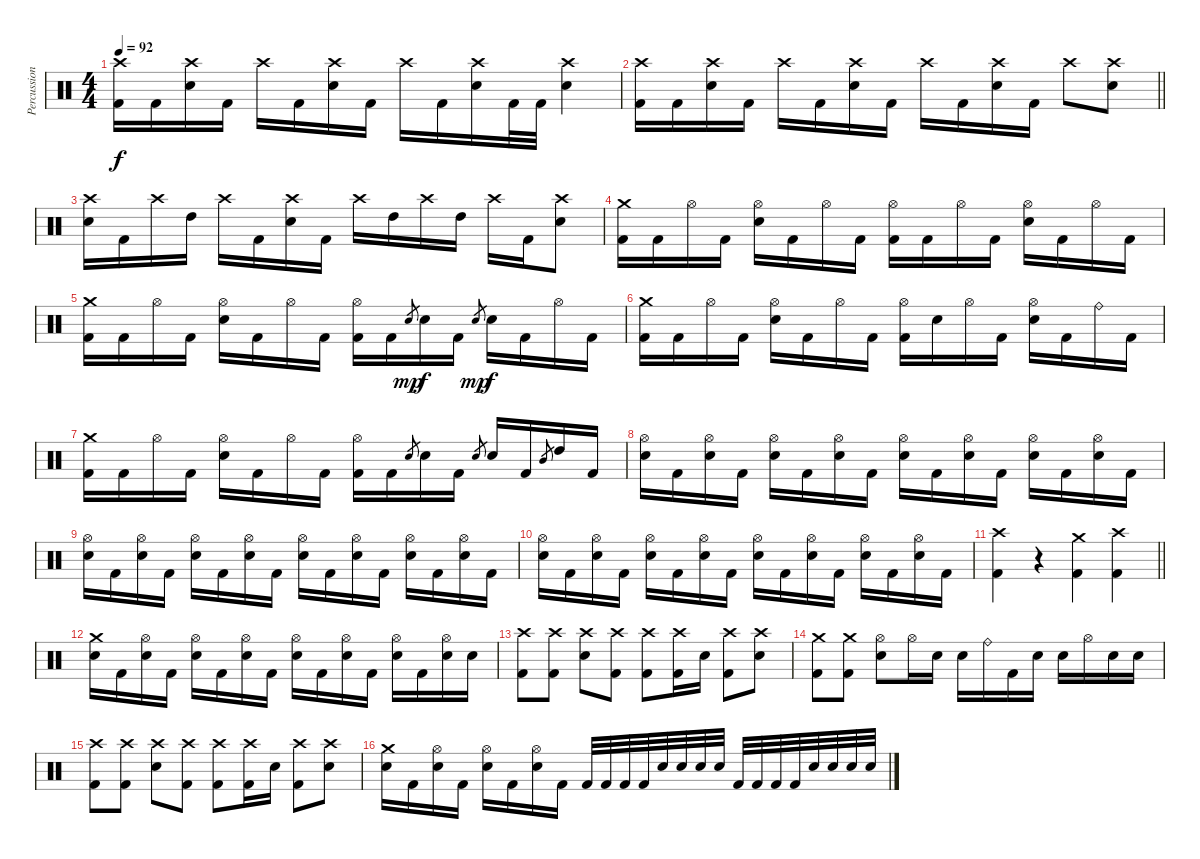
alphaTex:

\track ("Percussion (Moose)" "Percussion") {instrument percussion}
\staff {score}
\articulation defaults
\ts (4 4)
\tempo 92
\clef neutral
\ks c
("Crash high (hit)" "Kick (hit) 2").16{dy f} "Kick (hit) 2".16 ("Crash high (hit)" "Electric Snare (hit)").16 "Kick (hit) 2".16 "Crash high (hit)".16 "Kick (hit) 2".16 ("Crash high (hit)" "Electric Snare (hit)").16 "Kick (hit) 2".16 "Crash high (hit)".16 "Kick (hit) 2".16 ("Crash high (hit)" "Electric Snare (hit)").16 "Kick (hit) 2".32 "Kick (hit) 2".32 ("Crash high (hit)" "Electric Snare (hit)").4 |
\barLineRight lightlight
("Crash high (hit)" "Kick (hit) 2").16 "Kick (hit) 2".16 ("Crash high (hit)" "Electric Snare (hit)").16 "Kick (hit) 2".16 "Crash high (hit)".16 "Kick (hit) 2".16 ("Crash high (hit)" "Electric Snare (hit)").16 "Kick (hit) 2".16 "Crash high (hit)".16 "Kick (hit) 2".16 ("Crash high (hit)" "Electric Snare (hit)").16 "Kick (hit) 2".16 "Crash high (hit)".8 ("Crash high (hit)" "Electric Snare (hit)").8 |
("Crash high (hit)" "Electric Snare (hit)").16 "Kick (hit) 2".16 "Crash high (hit)".16 "High Tom (hit)".16 "Crash high (hit)".16 "Kick (hit) 2".16 ("Crash high (hit)" "Electric Snare (hit)").16 "Kick (hit) 2".16 "Crash high (hit)".16 "High Tom (hit)".16 "Crash high (hit)".16 "High Tom (hit)".16 "Crash high (hit)".16 "Kick (hit) 2".16 ("Crash high (hit)" "Electric Snare (hit)").8 |
("Crash medium (hit)" "Kick (hit) 2").16 "Kick (hit) 2".16 "Hi-Hat (open)".16 "Kick (hit) 2".16 ("Hi-Hat (open)" "Electric Snare (hit)").16 "Kick (hit) 2".16 "Hi-Hat (open)".16 "Kick (hit) 2".16 ("Hi-Hat (open)" "Kick (hit) 2").16 "Kick (hit) 2".16 "Hi-Hat (open)".16 "Kick (hit) 2".16 ("Hi-Hat (open)" "Electric Snare (hit)").16 "Kick (hit) 2".16 "Hi-Hat (open)".16 "Kick (hit) 2".16 |
("Crash medium (hit)" "Kick (hit) 2").16 "Kick (hit) 2".16 "Hi-Hat (open)".16 "Kick (hit) 2".16 ("Hi-Hat (open)" "Electric Snare (hit)").16 "Kick (hit) 2".16 "Hi-Hat (open)".16 "Kick (hit) 2".16 ("Hi-Hat (open)" "Kick (hit) 2").16 "Kick (hit) 2".16 "Electric Snare (hit)".8{gr dy mp} "Electric Snare (hit)".16{dy f} "Kick (hit) 2".16 "Electric Snare (hit)".8{gr dy mp} "Electric Snare (hit)".16{dy f} "Kick (hit) 2".16 "Hi-Hat (open)".16 "Kick (hit) 2".16 |
("Crash medium (hit)" "Kick (hit) 2").16 "Kick (hit) 2".16 "Hi-Hat (open)".16 "Kick (hit) 2".16 ("Hi-Hat (open)" "Electric Snare (hit)").16 "Kick (hit) 2".16 "Hi-Hat (open)".16 "Kick (hit) 2".16 ("Hi-Hat (open)" "Kick (hit) 2").16 "Electric Snare (hit)".16 "Hi-Hat (open)".16 "Kick (hit) 2".16 ("Hi-Hat (open)" "Electric Snare (hit)").16 "Kick (hit) 2".16 "Ride (bell)".16 "Kick (hit) 2".16 |
("Crash medium (hit)" "Kick (hit) 2").16 "Kick (hit) 2".16 "Hi-Hat (open)".16 "Kick (hit) 2".16 ("Hi-Hat (open)" "Electric Snare (hit)").16 "Kick (hit) 2".16 "Hi-Hat (open)".16 "Kick (hit) 2".16 ("Hi-Hat (open)" "Kick (hit) 2").16 "Kick (hit) 2".16 "Electric Snare (hit)".8{gr} "Electric Snare (hit)".16 "Kick (hit) 2".16 "Electric Snare (hit)".8{gr} "Electric Snare (hit)".16 "Kick (hit) 2".16 "Mid Tom (hit)".8{gr} "High Tom (hit)".16 "Kick (hit) 2".16 |
("Hi-Hat (open)" "Electric Snare (hit)").16{volume 6} "Kick (hit) 2".16 ("Hi-Hat (open)" "Electric Snare (hit)").16 "Kick (hit) 2".16 ("Hi-Hat (open)" "Electric Snare (hit)").16 "Kick (hit) 2".16 ("Hi-Hat (open)" "Electric Snare (hit)").16 "Kick (hit) 2".16 ("Hi-Hat (open)" "Electric Snare (hit)").16 "Kick (hit) 2".16 ("Hi-Hat (open)" "Electric Snare (hit)").16 "Kick (hit) 2".16 ("Hi-Hat (open)" "Electric Snare (hit)").16 "Kick (hit) 2".16 ("Hi-Hat (open)" "Electric Snare (hit)").16 "Kick (hit) 2".16 |
("Hi-Hat (open)" "Electric Snare (hit)").16 "Kick (hit) 2".16 ("Hi-Hat (open)" "Electric Snare (hit)").16 "Kick (hit) 2".16 ("Hi-Hat (open)" "Electric Snare (hit)").16 "Kick (hit) 2".16 ("Hi-Hat (open)" "Electric Snare (hit)").16 "Kick (hit) 2".16 ("Hi-Hat (open)" "Electric Snare (hit)").16 "Kick (hit) 2".16 ("Hi-Hat (open)" "Electric Snare (hit)").16 "Kick (hit) 2".16 ("Hi-Hat (open)" "Electric Snare (hit)").16 "Kick (hit) 2".16 ("Hi-Hat (open)" "Electric Snare (hit)").16 "Kick (hit) 2".16 |
("Hi-Hat (open)" "Electric Snare (hit)").16 "Kick (hit) 2".16 ("Hi-Hat (open)" "Electric Snare (hit)").16 "Kick (hit) 2".16 ("Hi-Hat (open)" "Electric Snare (hit)").16 "Kick (hit) 2".16 ("Hi-Hat (open)" "Electric Snare (hit)").16 "Kick (hit) 2".16 ("Hi-Hat (open)" "Electric Snare (hit)").16 "Kick (hit) 2".16 ("Hi-Hat (open)" "Electric Snare (hit)").16 "Kick (hit) 2".16 ("Hi-Hat (open)" "Electric Snare (hit)").16 "Kick (hit) 2".16 ("Hi-Hat (open)" "Electric Snare (hit)").16 "Kick (hit) 2".16 |
\barLineRight lightlight
("Crash high (hit)" "Kick (hit) 2").4{volume 13} r.4 ("Crash medium (hit)" "Kick (hit) 2").4 ("Crash high (hit)" "Kick (hit) 2").4{volume 13} |
("Crash medium (hit)" "Electric Snare (hit)").16 "Kick (hit) 2".16 ("Hi-Hat (open)" "Electric Snare (hit)").16 "Kick (hit) 2".16 ("Hi-Hat (open)" "Electric Snare (hit)").16 "Kick (hit) 2".16 ("Hi-Hat (open)" "Electric Snare (hit)").16 "Kick (hit) 2".16 ("Hi-Hat (open)" "Electric Snare (hit)").16 "Kick (hit) 2".16 ("Hi-Hat (open)" "Electric Snare (hit)").16 "Kick (hit) 2".16 ("Hi-Hat (open)" "Electric Snare (hit)").16 "Kick (hit) 2".16 ("Hi-Hat (open)" "Electric Snare (hit)").16 "Electric Snare (hit)".16 |
("Crash high (hit)" "Kick (hit) 2").8 ("Crash high (hit)" "Kick (hit) 2").8 ("Crash high (hit)" "Electric Snare (hit)").8 ("Crash high (hit)" "Kick (hit) 2").8 ("Crash high (hit)" "Kick (hit) 2").8 ("Crash high (hit)" "Kick (hit) 2").16 "Electric Snare (hit)".16 ("Crash high (hit)" "Kick (hit) 2").8 ("Crash high (hit)" "Electric Snare (hit)").8 |
("Crash medium (hit)" "Kick (hit) 2").8 ("Crash medium (hit)" "Kick (hit) 2").8 ("Hi-Hat (open)" "Electric Snare (hit)").8 "Hi-Hat (open)".16 "Electric Snare (hit)".16 "Electric Snare (hit)".16 "Ride (bell)".16 "Kick (hit) 2".16 "Electric Snare (hit)".16 "Electric Snare (hit)".16 "Hi-Hat (open)".16 "Electric Snare (hit)".16 "Electric Snare (hit)".16 |
("Crash high (hit)" "Kick (hit) 2").8 ("Crash high (hit)" "Kick (hit) 2").8 ("Crash high (hit)" "Electric Snare (hit)").8 ("Crash high (hit)" "Kick (hit) 2").8 ("Crash high (hit)" "Kick (hit) 2").8 ("Crash high (hit)" "Kick (hit) 2").16 "Electric Snare (hit)".16 ("Crash high (hit)" "Kick (hit) 2").8 ("Crash high (hit)" "Electric Snare (hit)").8 |
("Crash medium (hit)" "Electric Snare (hit)").16 "Kick (hit) 2".16 ("Hi-Hat (open)" "Electric Snare (hit)").16 "Kick (hit) 2".16 ("Hi-Hat (open)" "Electric Snare (hit)").16 "Kick (hit) 2".16 ("Hi-Hat (open)" "Electric Snare (hit)").16 "Kick (hit) 2".16 "Kick (hit) 2".32 "Kick (hit) 2".32 "Kick (hit) 2".32 "Kick (hit) 2".32 "Electric Snare (hit)".32 "Electric Snare (hit)".32 "Electric Snare (hit)".32 "Electric Snare (hit)".32 "Kick (hit) 2".32 "Kick (hit) 2".32 "Kick (hit) 2".32 "Kick (hit) 2".32 "Electric Snare (hit)".32 "Electric Snare (hit)".32 "Electric Snare (hit)".32 "Electric Snare (hit)".32
